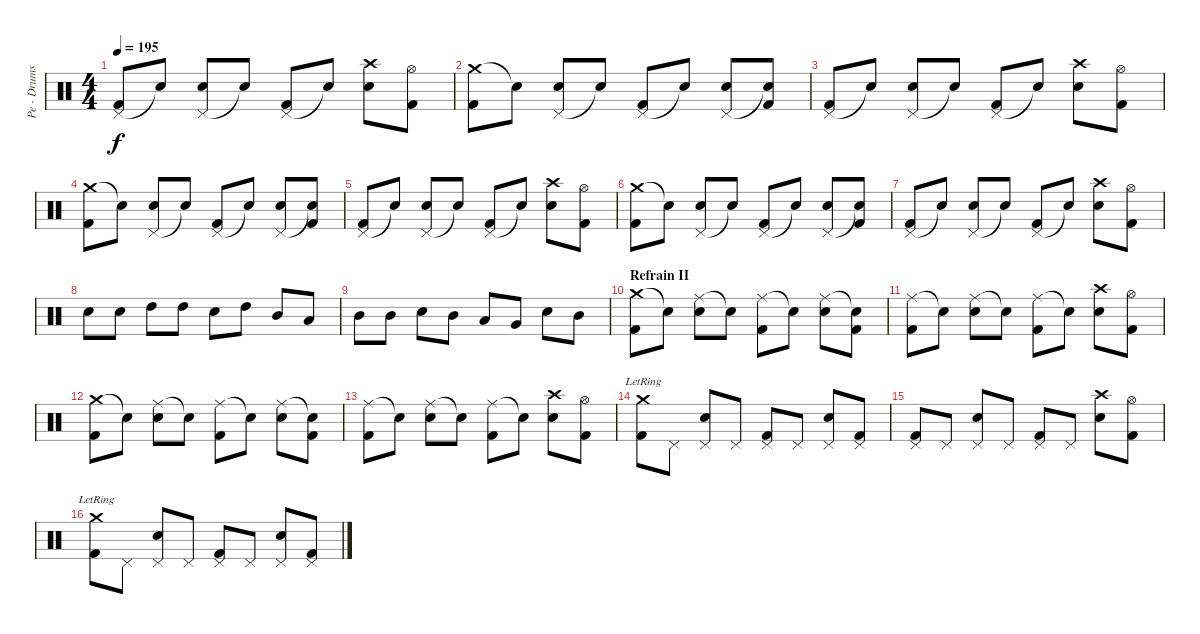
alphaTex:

\track ("Pe - Drums" "Pe - Drums") {instrument percussion}
\staff {score}
\articulation defaults
\ts (4 4)
\tempo 195
\clef neutral
\ks c
("Pedal Hi-Hat (hit)" "Kick (hit) 2").8{dy f} "Snare (hit)"{t}.8 ("Pedal Hi-Hat (hit)" "Electric Snare (hit)").8 "Snare (hit)"{t}.8 ("Pedal Hi-Hat (hit)" "Kick (hit) 2").8 "Snare (hit)"{t}.8 ("Crash high (hit)" "Electric Snare (hit)").8 ("Hi-Hat (open)" "Kick (hit) 2").8 |
("Crash medium (hit)" "Kick (hit) 2").8 "Snare (hit)"{t}.8 ("Pedal Hi-Hat (hit)" "Electric Snare (hit)").8 "Snare (hit)"{t}.8 ("Pedal Hi-Hat (hit)" "Kick (hit) 2").8 "Snare (hit)"{t}.8 ("Pedal Hi-Hat (hit)" "Electric Snare (hit)").8 ("Snare (hit)"{t} "Kick (hit) 2").8 |
("Pedal Hi-Hat (hit)" "Kick (hit) 2").8 "Snare (hit)"{t}.8 ("Pedal Hi-Hat (hit)" "Electric Snare (hit)").8 "Snare (hit)"{t}.8 ("Pedal Hi-Hat (hit)" "Kick (hit) 2").8 "Snare (hit)"{t}.8 ("Crash high (hit)" "Electric Snare (hit)").8 ("Hi-Hat (open)" "Kick (hit) 2").8 |
("Crash medium (hit)" "Kick (hit) 2").8 "Snare (hit)"{t}.8 ("Pedal Hi-Hat (hit)" "Electric Snare (hit)").8 "Snare (hit)"{t}.8 ("Pedal Hi-Hat (hit)" "Kick (hit) 2").8 "Snare (hit)"{t}.8 ("Pedal Hi-Hat (hit)" "Electric Snare (hit)").8 ("Snare (hit)"{t} "Kick (hit) 2").8 |
("Pedal Hi-Hat (hit)" "Kick (hit) 2").8 "Snare (hit)"{t}.8 ("Pedal Hi-Hat (hit)" "Electric Snare (hit)").8 "Snare (hit)"{t}.8 ("Pedal Hi-Hat (hit)" "Kick (hit) 2").8 "Snare (hit)"{t}.8 ("Crash high (hit)" "Electric Snare (hit)").8 ("Hi-Hat (open)" "Kick (hit) 2").8 |
("Crash medium (hit)" "Kick (hit) 2").8 "Snare (hit)"{t}.8 ("Pedal Hi-Hat (hit)" "Electric Snare (hit)").8 "Snare (hit)"{t}.8 ("Pedal Hi-Hat (hit)" "Kick (hit) 2").8 "Snare (hit)"{t}.8 ("Pedal Hi-Hat (hit)" "Electric Snare (hit)").8 ("Snare (hit)"{t} "Kick (hit) 2").8 |
("Pedal Hi-Hat (hit)" "Kick (hit) 2").8 "Snare (hit)"{t}.8 ("Pedal Hi-Hat (hit)" "Electric Snare (hit)").8 "Snare (hit)"{t}.8 ("Pedal Hi-Hat (hit)" "Kick (hit) 2").8 "Snare (hit)"{t}.8 ("Crash high (hit)" "Electric Snare (hit)").8 ("Hi-Hat (open)" "Kick (hit) 2").8 |
"Electric Snare (hit)".8 "Electric Snare (hit)".8 "High Tom (hit)".8 "High Tom (hit)".8 "Electric Snare (hit)".8 "High Tom (hit)".8 "Mid Tom (hit)".8 "Low Tom (hit)".8 |
"Mid Tom (hit)".8 "Mid Tom (hit)".8 "Electric Snare (hit)".8 "Mid Tom (hit)".8 "Low Tom (hit)".8 "Very Low Tom (hit)".8 "Electric Snare (hit)".8 "Mid Tom (hit)".8 |
\section ("" "Refrain II")
("Crash medium (hit)" "Kick (hit) 2").8 "Snare (hit)"{t}.8 ("Ride (middle)" "Electric Snare (hit)").8 "Snare (hit)"{t}.8 ("Ride (middle)" "Kick (hit) 2").8 "Snare (hit)"{t}.8 ("Ride (middle)" "Electric Snare (hit)").8 ("Snare (hit)"{t} "Kick (hit) 2").8 |
("Ride (middle)" "Kick (hit) 2").8 "Snare (hit)"{t}.8 ("Ride (middle)" "Electric Snare (hit)").8 "Snare (hit)"{t}.8 ("Ride (middle)" "Kick (hit) 2").8 "Snare (hit)"{t}.8 ("Crash high (hit)" "Electric Snare (hit)").8 ("Hi-Hat (open)" "Kick (hit) 2").8 |
("Crash medium (hit)" "Kick (hit) 2").8 "Snare (hit)"{t}.8 ("Ride (middle)" "Electric Snare (hit)").8 "Snare (hit)"{t}.8 ("Ride (middle)" "Kick (hit) 2").8 "Snare (hit)"{t}.8 ("Ride (middle)" "Electric Snare (hit)").8 ("Snare (hit)"{t} "Kick (hit) 2").8 |
("Ride (middle)" "Kick (hit) 2").8 "Snare (hit)"{t}.8 ("Ride (middle)" "Electric Snare (hit)").8 "Snare (hit)"{t}.8 ("Ride (middle)" "Kick (hit) 2").8 "Snare (hit)"{t}.8 ("Crash high (hit)" "Electric Snare (hit)").8 ("Hi-Hat (open)" "Kick (hit) 2").8 |
("Crash medium (hit)"{lr} "Kick (hit) 2").8 "Pedal Hi-Hat (hit)".8 ("Pedal Hi-Hat (hit)" "Electric Snare (hit)").8 "Pedal Hi-Hat (hit)".8 ("Pedal Hi-Hat (hit)" "Kick (hit) 2").8 "Pedal Hi-Hat (hit)".8 ("Pedal Hi-Hat (hit)" "Electric Snare (hit)").8 ("Pedal Hi-Hat (hit)" "Kick (hit) 2").8 |
("Pedal Hi-Hat (hit)" "Kick (hit) 2").8 "Pedal Hi-Hat (hit)".8 ("Pedal Hi-Hat (hit)" "Electric Snare (hit)").8 "Pedal Hi-Hat (hit)".8 ("Pedal Hi-Hat (hit)" "Kick (hit) 2").8 "Pedal Hi-Hat (hit)".8 ("Crash high (hit)" "Electric Snare (hit)").8 ("Hi-Hat (open)" "Kick (hit) 2").8 |
("Crash medium (hit)"{lr} "Kick (hit) 2").8 "Pedal Hi-Hat (hit)".8 ("Pedal Hi-Hat (hit)" "Electric Snare (hit)").8 "Pedal Hi-Hat (hit)".8 ("Pedal Hi-Hat (hit)" "Kick (hit) 2").8 "Pedal Hi-Hat (hit)".8 ("Pedal Hi-Hat (hit)" "Electric Snare (hit)").8 ("Pedal Hi-Hat (hit)" "Kick (hit) 2").8
